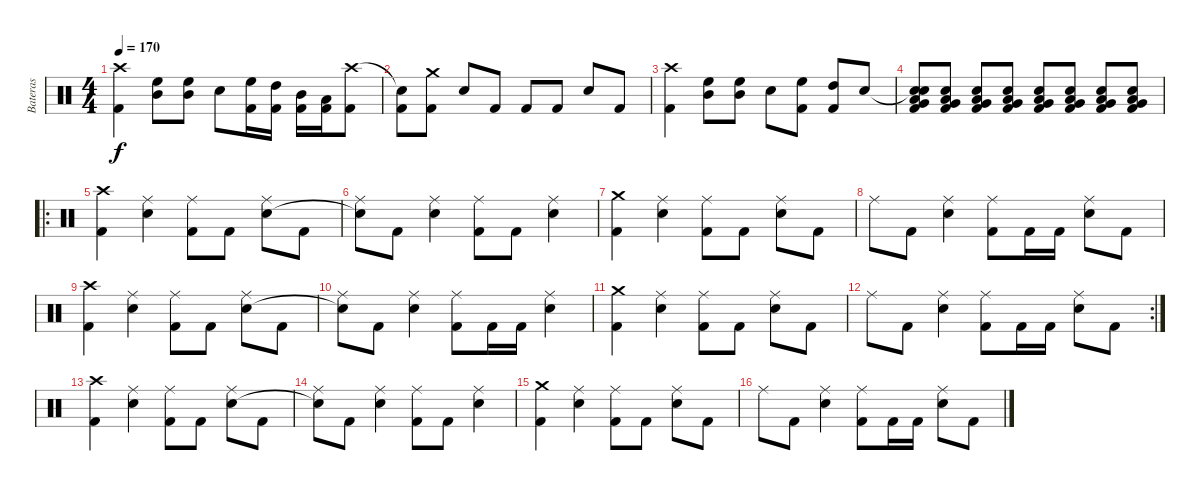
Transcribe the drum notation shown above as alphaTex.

\track ("Bateras" "Bateras") {instrument percussion}
\staff {score}
\articulation defaults
\ts (4 4)
\tempo 170
\clef neutral
\ks c
("Crash high (hit)" "Kick (hit) 2").4{dy f} ("High Floor Tom (hit)" "Mid Tom (hit)").8 ("High Floor Tom (hit)" "Mid Tom (hit)").8 "Snare (hit) 2".8 ("High Floor Tom (hit)" "Kick (hit) 2").16 ("High Tom (hit)" "Kick (hit) 2").16 ("Mid Tom (hit)" "Kick (hit) 2").16 ("Low Tom (hit)" "Kick (hit) 2").16 ("Crash high (hit)" "Kick (hit) 2").8 |
("Snare (hit)"{t} "Kick (hit) 2").8 ("Crash medium (hit)" "Kick (hit) 2").8 "Snare (hit) 2".8 "Kick (hit) 2".8 "Kick (hit) 2".8 "Kick (hit) 2".8 "Snare (hit) 2".8 "Kick (hit) 2".8 |
("Crash high (hit)" "Kick (hit) 2").4 ("High Floor Tom (hit)" "Mid Tom (hit)").8 ("High Floor Tom (hit)" "Mid Tom (hit)").8 "Snare (hit) 2".8 ("High Floor Tom (hit)" "Kick (hit) 2").8 ("High Tom (hit)" "Kick (hit) 2").8 "Snare (hit) 2".8 |
("Snare (hit)"{t} "Low Floor Tom (hit)" "Very Low Tom (hit)" "Snare (hit) 2" "Kick (hit) 2").8 ("Low Floor Tom (hit)" "Very Low Tom (hit)" "Snare (hit) 2" "Kick (hit) 2").8 ("Low Floor Tom (hit)" "Very Low Tom (hit)" "Snare (hit) 2" "Kick (hit) 2").8 ("Low Floor Tom (hit)" "Very Low Tom (hit)" "Snare (hit) 2" "Kick (hit) 2").8 ("Low Floor Tom (hit)" "Very Low Tom (hit)" "Snare (hit) 2" "Kick (hit) 2").8 ("Low Floor Tom (hit)" "Very Low Tom (hit)" "Snare (hit) 2" "Kick (hit) 2").8 ("Low Floor Tom (hit)" "Very Low Tom (hit)" "Snare (hit) 2" "Kick (hit) 2").8 ("Low Floor Tom (hit)" "Very Low Tom (hit)" "Snare (hit) 2" "Kick (hit) 2").8 |
\ro
("Crash high (hit)" "Kick (hit) 2").4 ("Ride (middle)" "Snare (hit) 2").4 ("Ride (middle)" "Kick (hit) 2").8 "Kick (hit) 2".8 ("Ride (middle)" "Snare (hit) 2").8 "Kick (hit) 2".8 |
("Ride (middle)" "Snare (hit)"{t}).8 "Kick (hit) 2".8 ("Ride (middle)" "Snare (hit) 2").4 ("Ride (middle)" "Kick (hit) 2").8 "Kick (hit) 2".8 ("Ride (middle)" "Snare (hit) 2").4 |
("Crash medium (hit)" "Kick (hit) 2").4 ("Ride (middle)" "Snare (hit) 2").4 ("Ride (middle)" "Kick (hit) 2").8 "Kick (hit) 2".8 ("Ride (middle)" "Snare (hit) 2").8 "Kick (hit) 2".8 |
"Ride (middle)".8 "Kick (hit) 2".8 ("Ride (middle)" "Snare (hit) 2").4 ("Ride (middle)" "Kick (hit) 2").8 "Kick (hit) 2".16 "Kick (hit) 2".16 ("Ride (middle)" "Snare (hit) 2").8 "Kick (hit) 2".8 |
("Crash high (hit)" "Kick (hit) 2").4 ("Ride (middle)" "Snare (hit) 2").4 ("Ride (middle)" "Kick (hit) 2").8 "Kick (hit) 2".8 ("Ride (middle)" "Snare (hit) 2").8 "Kick (hit) 2".8 |
("Ride (middle)" "Snare (hit)"{t}).8 "Kick (hit) 2".8 ("Ride (middle)" "Snare (hit) 2").4 ("Ride (middle)" "Kick (hit) 2").8 "Kick (hit) 2".16 "Kick (hit) 2".16 ("Ride (middle)" "Snare (hit) 2").4 |
("Crash medium (hit)" "Kick (hit) 2").4 ("Ride (middle)" "Snare (hit) 2").4 ("Ride (middle)" "Kick (hit) 2").8 "Kick (hit) 2".8 ("Ride (middle)" "Snare (hit) 2").8 "Kick (hit) 2".8 |
\rc 2 "Ride (middle)".8 "Kick (hit) 2".8
("Ride (middle)" "Snare (hit) 2").4 ("Ride (middle)" "Kick (hit) 2").8 "Kick (hit) 2".16 "Kick (hit) 2".16 ("Ride (middle)" "Snare (hit) 2").8 "Kick (hit) 2".8 |
("Crash high (hit)" "Kick (hit) 2").4 ("Ride (middle)" "Snare (hit) 2").4 ("Ride (middle)" "Kick (hit) 2").8 "Kick (hit) 2".8 ("Ride (middle)" "Snare (hit) 2").8 "Kick (hit) 2".8 |
("Ride (middle)" "Snare (hit)"{t}).8 "Kick (hit) 2".8 ("Ride (middle)" "Snare (hit) 2").4 ("Ride (middle)" "Kick (hit) 2").8 "Kick (hit) 2".8 ("Ride (middle)" "Snare (hit) 2").4 |
("Crash medium (hit)" "Kick (hit) 2").4 ("Ride (middle)" "Snare (hit) 2").4 ("Ride (middle)" "Kick (hit) 2").8 "Kick (hit) 2".8 ("Ride (middle)" "Snare (hit) 2").8 "Kick (hit) 2".8 |
"Ride (middle)".8 "Kick (hit) 2".8 ("Ride (middle)" "Snare (hit) 2").4 ("Ride (middle)" "Kick (hit) 2").8 "Kick (hit) 2".16 "Kick (hit) 2".16 ("Ride (middle)" "Snare (hit) 2").8 "Kick (hit) 2".8
